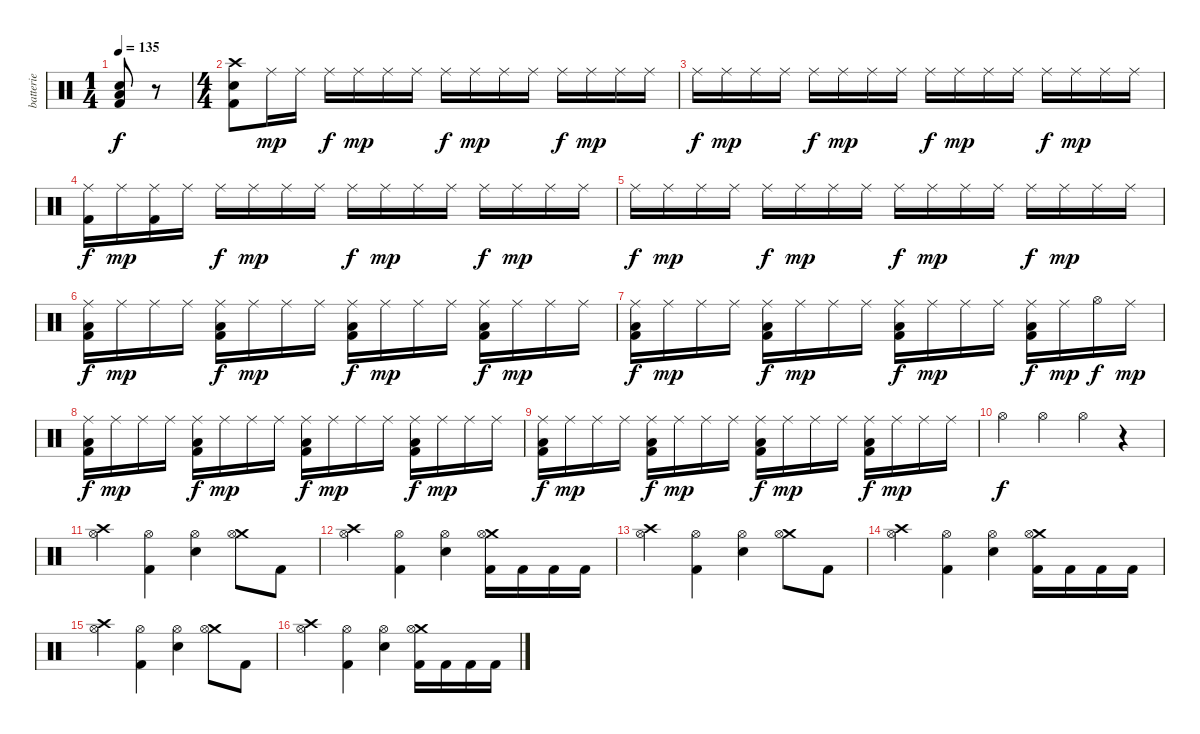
\track ("batterie" "batterie") {instrument percussion}
\staff {score}
\articulation defaults
\ts (1 4)
\tempo 135
\clef neutral
\ks c
("Electric Snare (hit)" "Low Floor Tom (hit)" "Kick (hit) 2").8{dy f} r.8 |
\ts (4 4)
("Snare (hit) 2" "Crash high (hit)" "Kick (hit) 2").8 "Ride (middle)".16{dy mp} "Ride (middle)".16 "Ride (middle)".16{dy f} "Ride (middle)".16{dy mp} "Ride (middle)".16 "Ride (middle)".16 "Ride (middle)".16{dy f} "Ride (middle)".16{dy mp} "Ride (middle)".16 "Ride (middle)".16 "Ride (middle)".16{dy f} "Ride (middle)".16{dy mp} "Ride (middle)".16 "Ride (middle)".16 |
"Ride (middle)".16{dy f} "Ride (middle)".16{dy mp} "Ride (middle)".16 "Ride (middle)".16 "Ride (middle)".16{dy f} "Ride (middle)".16{dy mp} "Ride (middle)".16 "Ride (middle)".16 "Ride (middle)".16{dy f} "Ride (middle)".16{dy mp} "Ride (middle)".16 "Ride (middle)".16 "Ride (middle)".16{dy f} "Ride (middle)".16{dy mp} "Ride (middle)".16 "Ride (middle)".16 |
("Ride (middle)" "Kick (hit) 2").16{dy f} "Ride (middle)".16{dy mp} ("Ride (middle)" "Kick (hit) 2").16 "Ride (middle)".16 "Ride (middle)".16{dy f} "Ride (middle)".16{dy mp} "Ride (middle)".16 "Ride (middle)".16 "Ride (middle)".16{dy f} "Ride (middle)".16{dy mp} "Ride (middle)".16 "Ride (middle)".16 "Ride (middle)".16{dy f} "Ride (middle)".16{dy mp} "Ride (middle)".16 "Ride (middle)".16 |
"Ride (middle)".16{dy f} "Ride (middle)".16{dy mp} "Ride (middle)".16 "Ride (middle)".16 "Ride (middle)".16{dy f} "Ride (middle)".16{dy mp} "Ride (middle)".16 "Ride (middle)".16 "Ride (middle)".16{dy f} "Ride (middle)".16{dy mp} "Ride (middle)".16 "Ride (middle)".16 "Ride (middle)".16{dy f} "Ride (middle)".16{dy mp} "Ride (middle)".16 "Ride (middle)".16 |
("Ride (middle)" "Low Floor Tom (hit)" "Kick (hit) 2").16{dy f} "Ride (middle)".16{dy mp} "Ride (middle)".16 "Ride (middle)".16 ("Ride (middle)" "Low Floor Tom (hit)" "Kick (hit) 2").16{dy f} "Ride (middle)".16{dy mp} "Ride (middle)".16 "Ride (middle)".16 ("Ride (middle)" "Low Floor Tom (hit)" "Kick (hit) 2").16{dy f} "Ride (middle)".16{dy mp} "Ride (middle)".16 "Ride (middle)".16 ("Ride (middle)" "Low Floor Tom (hit)" "Kick (hit) 2").16{dy f} "Ride (middle)".16{dy mp} "Ride (middle)".16 "Ride (middle)".16 |
("Ride (middle)" "Low Floor Tom (hit)" "Kick (hit) 2").16{dy f} "Ride (middle)".16{dy mp} "Ride (middle)".16 "Ride (middle)".16 ("Ride (middle)" "Low Floor Tom (hit)" "Kick (hit) 2").16{dy f} "Ride (middle)".16{dy mp} "Ride (middle)".16 "Ride (middle)".16 ("Ride (middle)" "Low Floor Tom (hit)" "Kick (hit) 2").16{dy f} "Ride (middle)".16{dy mp} "Ride (middle)".16 "Ride (middle)".16 ("Ride (middle)" "Low Floor Tom (hit)" "Kick (hit) 2").16{dy f} "Ride (middle)".16{dy mp} "Hi-Hat (open)".16{dy f} "Ride (middle)".16{dy mp} |
("Ride (middle)" "Low Floor Tom (hit)" "Kick (hit) 2").16{dy f} "Ride (middle)".16{dy mp} "Ride (middle)".16 "Ride (middle)".16 ("Ride (middle)" "Low Floor Tom (hit)" "Kick (hit) 2").16{dy f} "Ride (middle)".16{dy mp} "Ride (middle)".16 "Ride (middle)".16 ("Ride (middle)" "Low Floor Tom (hit)" "Kick (hit) 2").16{dy f} "Ride (middle)".16{dy mp} "Ride (middle)".16 "Ride (middle)".16 ("Ride (middle)" "Low Floor Tom (hit)" "Kick (hit) 2").16{dy f} "Ride (middle)".16{dy mp} "Ride (middle)".16 "Ride (middle)".16 |
("Ride (middle)" "Low Floor Tom (hit)" "Kick (hit) 2").16{dy f} "Ride (middle)".16{dy mp} "Ride (middle)".16 "Ride (middle)".16 ("Ride (middle)" "Low Floor Tom (hit)" "Kick (hit) 2").16{dy f} "Ride (middle)".16{dy mp} "Ride (middle)".16 "Ride (middle)".16 ("Ride (middle)" "Low Floor Tom (hit)" "Kick (hit) 2").16{dy f} "Ride (middle)".16{dy mp} "Ride (middle)".16 "Ride (middle)".16 ("Ride (middle)" "Low Floor Tom (hit)" "Kick (hit) 2").16{dy f} "Ride (middle)".16{dy mp} "Ride (middle)".16 "Ride (middle)".16 |
"Hi-Hat (open)".4{dy f} "Hi-Hat (open)".4 "Hi-Hat (open)".4 r.4 |
("Crash high (hit)" "Hi-Hat (open)").4 ("Hi-Hat (open)" "Kick (hit) 2").4 ("Snare (hit) 2" "Hi-Hat (open)").4 ("Crash medium (hit)" "Hi-Hat (open)").8 "Kick (hit) 2".8 |
("Crash high (hit)" "Hi-Hat (open)").4 ("Hi-Hat (open)" "Kick (hit) 2").4 ("Snare (hit) 2" "Hi-Hat (open)").4 ("Crash medium (hit)" "Hi-Hat (open)" "Kick (hit) 2").16 "Kick (hit) 2".16 "Kick (hit) 2".16 "Kick (hit) 2".16 |
("Crash high (hit)" "Hi-Hat (open)").4 ("Hi-Hat (open)" "Kick (hit) 2").4 ("Snare (hit) 2" "Hi-Hat (open)").4 ("Crash medium (hit)" "Hi-Hat (open)").8 "Kick (hit) 2".8 |
("Crash high (hit)" "Hi-Hat (open)").4 ("Hi-Hat (open)" "Kick (hit) 2").4 ("Snare (hit) 2" "Hi-Hat (open)").4 ("Crash medium (hit)" "Hi-Hat (open)" "Kick (hit) 2").16 "Kick (hit) 2".16 "Kick (hit) 2".16 "Kick (hit) 2".16 |
("Crash high (hit)" "Hi-Hat (open)").4 ("Hi-Hat (open)" "Kick (hit) 2").4 ("Snare (hit) 2" "Hi-Hat (open)").4 ("Crash medium (hit)" "Hi-Hat (open)").8 "Kick (hit) 2".8 |
("Crash high (hit)" "Hi-Hat (open)").4 ("Hi-Hat (open)" "Kick (hit) 2").4 ("Snare (hit) 2" "Hi-Hat (open)").4 ("Crash medium (hit)" "Hi-Hat (open)" "Kick (hit) 2").16 "Kick (hit) 2".16 "Kick (hit) 2".16 "Kick (hit) 2".16
